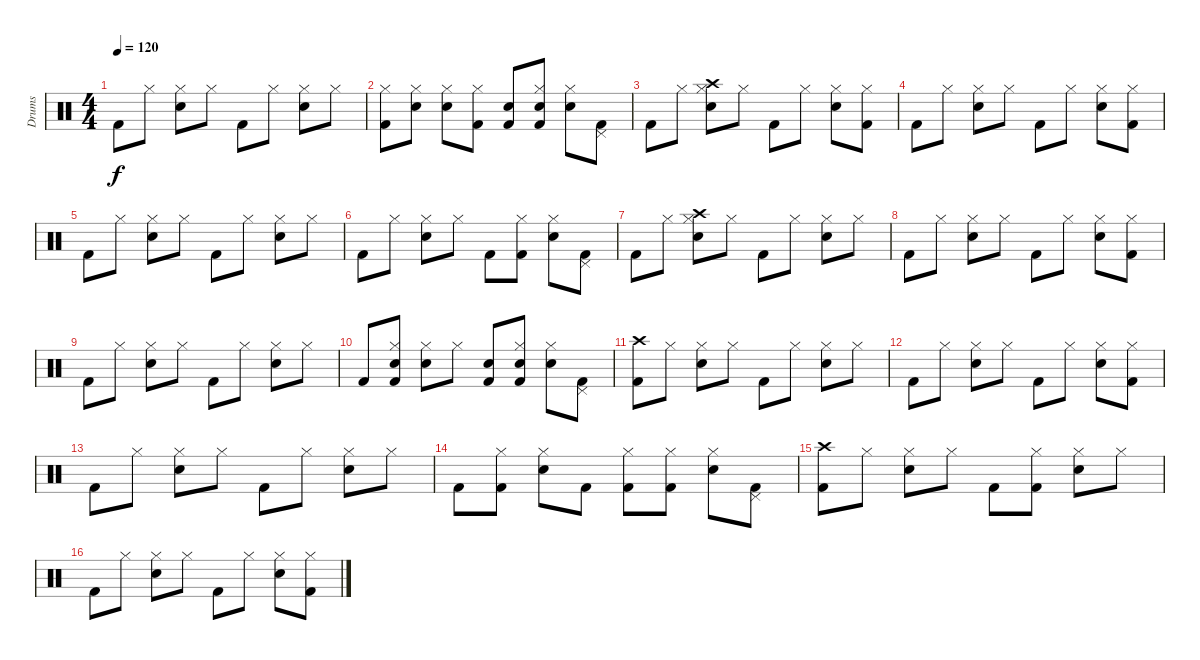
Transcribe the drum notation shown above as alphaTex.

\track ("Drums" "Drums") {instrument percussion}
\staff {score}
\articulation defaults
\ts (4 4)
\tempo 120
\clef neutral
\ks c "Kick (hit) 2".8{dy f} "Hi-Hat (closed)".8
("Hi-Hat (closed)" "Snare (hit) 2").8 "Hi-Hat (closed)".8 "Kick (hit) 2".8 "Hi-Hat (closed)".8 ("Hi-Hat (closed)" "Snare (hit) 2").8 "Hi-Hat (closed)".8 |
("Hi-Hat (closed)" "Kick (hit) 2").8 ("Hi-Hat (closed)" "Snare (hit) 2").8 ("Hi-Hat (closed)" "Snare (hit) 2").8 ("Hi-Hat (closed)" "Kick (hit) 2").8 ("Snare (hit) 2" "Kick (hit) 2").8 ("Hi-Hat (closed)" "Snare (hit) 2" "Kick (hit) 2").8 ("Hi-Hat (closed)" "Snare (hit) 2").8 ("Pedal Hi-Hat (hit)" "Kick (hit) 2").8 |
"Kick (hit) 2".8 "Hi-Hat (closed)".8 ("Hi-Hat (closed)" "Crash high (hit)" "Snare (hit) 2").8 "Hi-Hat (closed)".8 "Kick (hit) 2".8 "Hi-Hat (closed)".8 ("Hi-Hat (closed)" "Snare (hit) 2").8 ("Hi-Hat (closed)" "Kick (hit) 2").8 |
"Kick (hit) 2".8 "Hi-Hat (closed)".8 ("Hi-Hat (closed)" "Snare (hit) 2").8 "Hi-Hat (closed)".8 "Kick (hit) 2".8 "Hi-Hat (closed)".8 ("Hi-Hat (closed)" "Snare (hit) 2").8 ("Hi-Hat (closed)" "Kick (hit) 2").8 |
"Kick (hit) 2".8 "Hi-Hat (closed)".8 ("Hi-Hat (closed)" "Snare (hit) 2").8 "Hi-Hat (closed)".8 "Kick (hit) 2".8 "Hi-Hat (closed)".8 ("Hi-Hat (closed)" "Snare (hit) 2").8 "Hi-Hat (closed)".8 |
"Kick (hit) 2".8 "Hi-Hat (closed)".8 ("Hi-Hat (closed)" "Snare (hit) 2").8 "Hi-Hat (closed)".8 "Kick (hit) 2".8 ("Hi-Hat (closed)" "Kick (hit) 2").8 ("Hi-Hat (closed)" "Snare (hit) 2").8 ("Pedal Hi-Hat (hit)" "Kick (hit) 2").8 |
"Kick (hit) 2".8 "Hi-Hat (closed)".8 ("Hi-Hat (closed)" "Crash high (hit)" "Snare (hit) 2").8 "Hi-Hat (closed)".8 "Kick (hit) 2".8 "Hi-Hat (closed)".8 ("Hi-Hat (closed)" "Snare (hit) 2").8 "Hi-Hat (closed)".8 |
"Kick (hit) 2".8 "Hi-Hat (closed)".8 ("Hi-Hat (closed)" "Snare (hit) 2").8 "Hi-Hat (closed)".8 "Kick (hit) 2".8 "Hi-Hat (closed)".8 ("Hi-Hat (closed)" "Snare (hit) 2").8 ("Hi-Hat (closed)" "Kick (hit) 2").8 |
"Kick (hit) 2".8 "Hi-Hat (closed)".8 ("Hi-Hat (closed)" "Snare (hit) 2").8 "Hi-Hat (closed)".8 "Kick (hit) 2".8 "Hi-Hat (closed)".8 ("Hi-Hat (closed)" "Snare (hit) 2").8 "Hi-Hat (closed)".8 |
"Kick (hit) 2".8 ("Hi-Hat (closed)" "Snare (hit) 2" "Kick (hit) 2").8 ("Hi-Hat (closed)" "Snare (hit) 2").8 "Hi-Hat (closed)".8 ("Snare (hit) 2" "Kick (hit) 2").8 ("Hi-Hat (closed)" "Snare (hit) 2" "Kick (hit) 2").8 ("Hi-Hat (closed)" "Snare (hit) 2").8 ("Pedal Hi-Hat (hit)" "Kick (hit) 2").8 |
("Crash high (hit)" "Kick (hit) 2").8 "Hi-Hat (closed)".8 ("Hi-Hat (closed)" "Snare (hit) 2").8 "Hi-Hat (closed)".8 "Kick (hit) 2".8 "Hi-Hat (closed)".8 ("Hi-Hat (closed)" "Snare (hit) 2").8 "Hi-Hat (closed)".8 |
"Kick (hit) 2".8 "Hi-Hat (closed)".8 ("Hi-Hat (closed)" "Snare (hit) 2").8 "Hi-Hat (closed)".8 "Kick (hit) 2".8 "Hi-Hat (closed)".8 ("Hi-Hat (closed)" "Snare (hit) 2").8 ("Hi-Hat (closed)" "Kick (hit) 2").8 |
"Kick (hit) 2".8 "Hi-Hat (closed)".8 ("Hi-Hat (closed)" "Snare (hit) 2").8 "Hi-Hat (closed)".8 "Kick (hit) 2".8 "Hi-Hat (closed)".8 ("Hi-Hat (closed)" "Snare (hit) 2").8 "Hi-Hat (closed)".8 |
"Kick (hit) 2".8 ("Hi-Hat (closed)" "Kick (hit) 2").8 ("Hi-Hat (closed)" "Snare (hit) 2").8 "Kick (hit) 2".8 ("Hi-Hat (closed)" "Kick (hit) 2").8 ("Hi-Hat (closed)" "Kick (hit) 2").8 ("Hi-Hat (closed)" "Snare (hit) 2").8 ("Pedal Hi-Hat (hit)" "Kick (hit) 2").8 |
("Crash high (hit)" "Kick (hit) 2").8 "Hi-Hat (closed)".8 ("Hi-Hat (closed)" "Snare (hit) 2").8 "Hi-Hat (closed)".8 "Kick (hit) 2".8 ("Hi-Hat (closed)" "Kick (hit) 2").8 ("Hi-Hat (closed)" "Snare (hit) 2").8 "Hi-Hat (closed)".8 |
"Kick (hit) 2".8 "Hi-Hat (closed)".8 ("Hi-Hat (closed)" "Snare (hit) 2").8 "Hi-Hat (closed)".8 "Kick (hit) 2".8 "Hi-Hat (closed)".8 ("Hi-Hat (closed)" "Snare (hit) 2").8 ("Hi-Hat (closed)" "Kick (hit) 2").8
